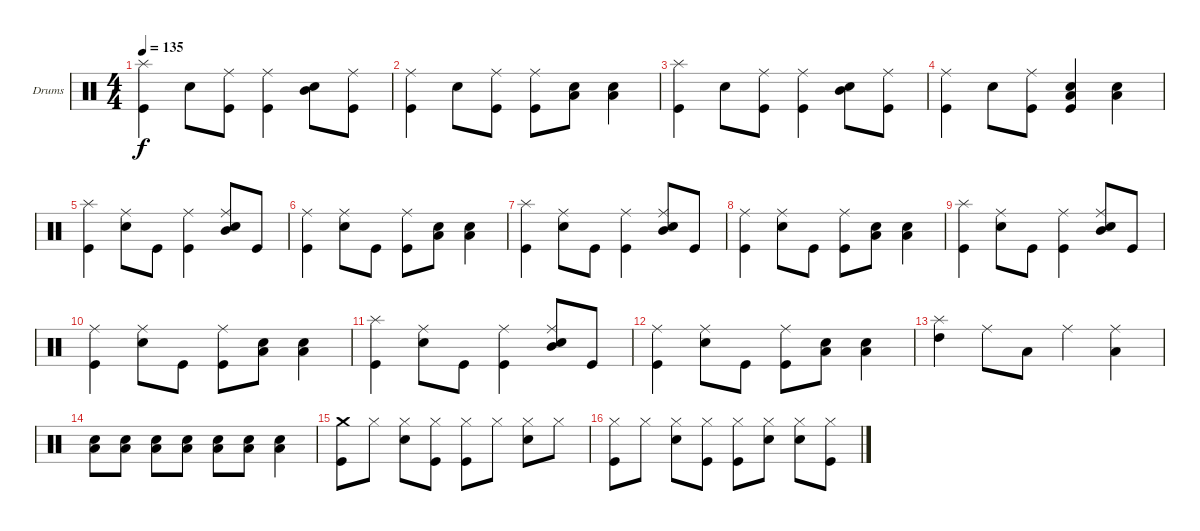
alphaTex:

\bracketExtendMode groupsimilarinstruments
\firstSystemTrackNameOrientation horizontal
\otherSystemsTrackNameOrientation horizontal
\track ("Drumkit" "Drums") {instrument percussion}
\staff {score}
\articulation defaults
\ts (4 4)
\tempo 135
\clef neutral
\ks c
("Splash (hit)" "Kick (hit)").4{dy f} "Snare (hit) 2".8 ("Ride (middle)" "Kick (hit)").8 ("Ride (middle)" "Kick (hit)").4 ("Mid Tom (hit)" "Snare (hit) 2").8 ("Ride (middle)" "Kick (hit)").8 |
("Ride (middle)" "Kick (hit)").4 "Snare (hit) 2".8 ("Ride (middle)" "Kick (hit)").8 ("Ride (middle)" "Kick (hit)").8 ("Low Tom (hit)" "Snare (hit) 2").8 ("Low Tom (hit)" "Snare (hit) 2").4 |
("Splash (hit)" "Kick (hit)").4 "Snare (hit) 2".8 ("Ride (middle)" "Kick (hit)").8 ("Ride (middle)" "Kick (hit)").4 ("Mid Tom (hit)" "Snare (hit) 2").8 ("Ride (middle)" "Kick (hit)").8 |
("Ride (middle)" "Kick (hit)").4 "Snare (hit) 2".8 ("Ride (middle)" "Kick (hit)").8 ("Low Tom (hit)" "Snare (hit) 2" "Kick (hit)").4 ("Low Tom (hit)" "Snare (hit) 2").4 |
("Splash (hit)" "Kick (hit)").4 ("Ride (middle)" "Snare (hit) 2").8 "Kick (hit)".8 ("Ride (middle)" "Kick (hit)").4 ("Ride (middle)" "Mid Tom (hit)" "Snare (hit) 2").8 "Kick (hit)".8 |
("Ride (middle)" "Kick (hit)").4 ("Ride (middle)" "Snare (hit) 2").8 "Kick (hit)".8 ("Ride (middle)" "Kick (hit)").8 ("Low Tom (hit)" "Snare (hit) 2").8 ("Low Tom (hit)" "Snare (hit) 2").4 |
("Splash (hit)" "Kick (hit)").4 ("Ride (middle)" "Snare (hit) 2").8 "Kick (hit)".8 ("Ride (middle)" "Kick (hit)").4 ("Ride (middle)" "Mid Tom (hit)" "Snare (hit) 2").8 "Kick (hit)".8 |
("Ride (middle)" "Kick (hit)").4 ("Ride (middle)" "Snare (hit) 2").8 "Kick (hit)".8 ("Ride (middle)" "Kick (hit)").8 ("Low Tom (hit)" "Snare (hit) 2").8 ("Low Tom (hit)" "Snare (hit) 2").4 |
("Splash (hit)" "Kick (hit)").4 ("Ride (middle)" "Snare (hit) 2").8 "Kick (hit)".8 ("Ride (middle)" "Kick (hit)").4 ("Ride (middle)" "Mid Tom (hit)" "Snare (hit) 2").8 "Kick (hit)".8 |
("Ride (middle)" "Kick (hit)").4 ("Ride (middle)" "Snare (hit) 2").8 "Kick (hit)".8 ("Ride (middle)" "Kick (hit)").8 ("Low Tom (hit)" "Snare (hit) 2").8 ("Low Tom (hit)" "Snare (hit) 2").4 |
("Splash (hit)" "Kick (hit)").4 ("Ride (middle)" "Snare (hit) 2").8 "Kick (hit)".8 ("Ride (middle)" "Kick (hit)").4 ("Ride (middle)" "Mid Tom (hit)" "Snare (hit) 2").8 "Kick (hit)".8 |
("Ride (middle)" "Kick (hit)").4 ("Ride (middle)" "Snare (hit) 2").8 "Kick (hit)".8 ("Ride (middle)" "Kick (hit)").8 ("Low Tom (hit)" "Snare (hit) 2").8 ("Low Tom (hit)" "Snare (hit) 2").4 |
("Splash (hit)" "High Tom (hit)").4 "Ride (middle)".8 "Low Tom (hit)".8 "Ride (middle)".4 ("Ride (middle)" "Low Tom (hit)").4 |
("Low Tom (hit)" "Snare (hit) 2").8 ("Low Tom (hit)" "Snare (hit) 2").8 ("Low Tom (hit)" "Snare (hit) 2").8 ("Low Tom (hit)" "Snare (hit) 2").8 ("Low Tom (hit)" "Snare (hit) 2").8 ("Low Tom (hit)" "Snare (hit) 2").8 ("Low Tom (hit)" "Snare (hit) 2").4 |
("Crash medium (hit)" "Kick (hit)").8 "Hi-Hat (closed)".8 ("Hi-Hat (closed)" "Snare (hit) 2").8 ("Hi-Hat (closed)" "Kick (hit)").8 ("Hi-Hat (closed)" "Kick (hit)").8 "Hi-Hat (closed)".8 ("Hi-Hat (closed)" "Snare (hit) 2").8 "Hi-Hat (closed)".8 |
("Hi-Hat (closed)" "Kick (hit)").8 "Hi-Hat (closed)".8 ("Hi-Hat (closed)" "Snare (hit) 2").8 ("Hi-Hat (closed)" "Kick (hit)").8 ("Hi-Hat (closed)" "Kick (hit)").8 ("Hi-Hat (closed)" "Snare (hit) 2").8 ("Hi-Hat (closed)" "Snare (hit) 2").8 ("Hi-Hat (closed)" "Kick (hit)").8
